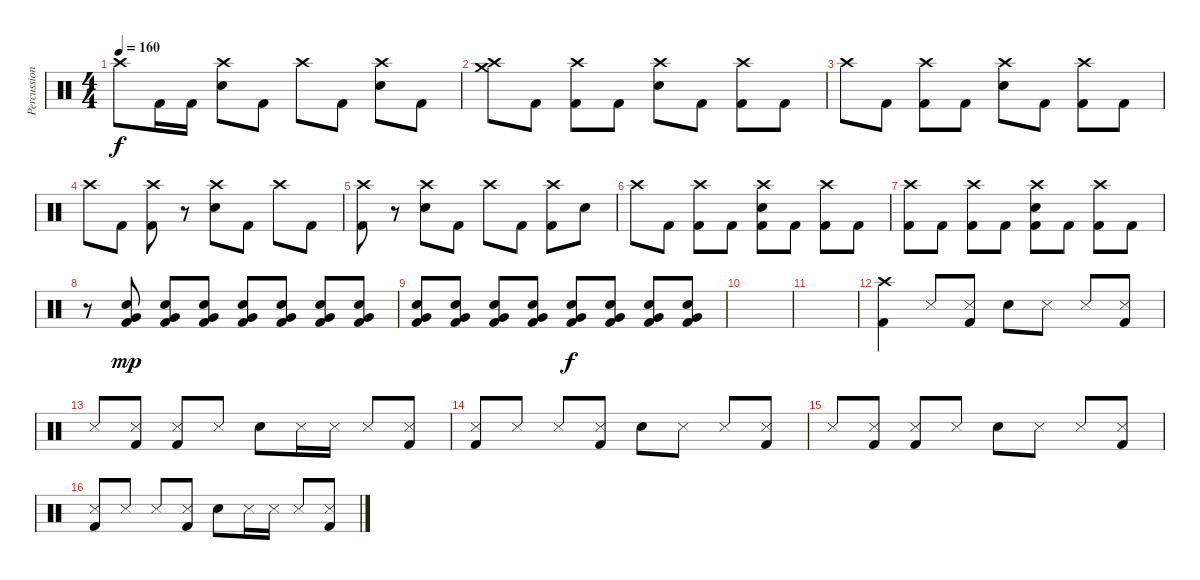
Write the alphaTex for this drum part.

\track ("Percussion" "Percussion") {instrument percussion}
\staff {score}
\articulation defaults
\ts (4 4)
\tempo 160
\clef neutral
\ks c "Crash high (hit)".8{dy f} "Kick (hit) 2".16 "Kick (hit) 2".16
("Crash high (hit)" "Electric Snare (hit)").8 "Kick (hit) 2".8 "Crash high (hit)".8 "Kick (hit) 2".8 ("Crash high (hit)" "Electric Snare (hit)").8 "Kick (hit) 2".8 |
("Crash medium (hit)" "Crash high (hit)").8 "Kick (hit) 2".8 ("Crash high (hit)" "Kick (hit) 2").8 "Kick (hit) 2".8 ("Crash high (hit)" "Electric Snare (hit)").8 "Kick (hit) 2".8 ("Crash high (hit)" "Kick (hit) 2").8 "Kick (hit) 2".8 |
"Crash high (hit)".8 "Kick (hit) 2".8 ("Crash high (hit)" "Kick (hit) 2").8 "Kick (hit) 2".8 ("Crash high (hit)" "Electric Snare (hit)").8 "Kick (hit) 2".8 ("Crash high (hit)" "Kick (hit) 2").8 "Kick (hit) 2".8 |
"Crash high (hit)".8 "Kick (hit) 2".8 ("Crash high (hit)" "Kick (hit) 2").8 r.8 ("Crash high (hit)" "Electric Snare (hit)").8 "Kick (hit) 2".8 "Crash high (hit)".8 "Kick (hit) 2".8 |
("Crash high (hit)" "Kick (hit) 2").8 r.8 ("Crash high (hit)" "Electric Snare (hit)").8 "Kick (hit) 2".8 "Crash high (hit)".8 "Kick (hit) 2".8 ("Crash high (hit)" "Kick (hit) 2").8 "Electric Snare (hit)".8 |
"Crash high (hit)".8 "Kick (hit) 2".8 ("Crash high (hit)" "Kick (hit) 2").8 "Kick (hit) 2".8 ("Crash high (hit)" "Electric Snare (hit)" "Kick (hit) 2").8 "Kick (hit) 2".8 ("Crash high (hit)" "Kick (hit) 2").8 "Kick (hit) 2".8 |
("Crash high (hit)" "Kick (hit) 2").8 "Kick (hit) 2".8 ("Crash high (hit)" "Kick (hit) 2").8 "Kick (hit) 2".8 ("Crash high (hit)" "Electric Snare (hit)" "Kick (hit) 2").8 "Kick (hit) 2".8 ("Crash high (hit)" "Kick (hit) 2").8 "Kick (hit) 2".8 |
r.8 ("Very Low Tom (hit)" "Electric Snare (hit)" "Kick (hit) 2").8{dy mp} ("Very Low Tom (hit)" "Electric Snare (hit)" "Kick (hit) 2").8 ("Very Low Tom (hit)" "Electric Snare (hit)" "Kick (hit) 2").8 ("Very Low Tom (hit)" "Electric Snare (hit)" "Kick (hit) 2").8 ("Very Low Tom (hit)" "Electric Snare (hit)" "Kick (hit) 2").8 ("Very Low Tom (hit)" "Electric Snare (hit)" "Kick (hit) 2").8 ("Very Low Tom (hit)" "Electric Snare (hit)" "Kick (hit) 2").8 |
("Very Low Tom (hit)" "Electric Snare (hit)" "Kick (hit) 2").8 ("Very Low Tom (hit)" "Electric Snare (hit)" "Kick (hit) 2").8 ("Very Low Tom (hit)" "Electric Snare (hit)" "Kick (hit) 2").8 ("Very Low Tom (hit)" "Electric Snare (hit)" "Kick (hit) 2").8 ("Very Low Tom (hit)" "Electric Snare (hit)" "Kick (hit) 2").8{dy f} ("Very Low Tom (hit)" "Electric Snare (hit)" "Kick (hit) 2").8 ("Very Low Tom (hit)" "Electric Snare (hit)" "Kick (hit) 2").8 ("Very Low Tom (hit)" "Electric Snare (hit)" "Kick (hit) 2").8 |
|
|
("Crash high (hit)" "Kick (hit) 2").4 "Snare (side stick) 3".8 ("Snare (side stick) 3" "Kick (hit) 2").8 "Electric Snare (hit)".8 "Snare (side stick) 3".8 "Snare (side stick) 3".8 ("Snare (side stick) 3" "Kick (hit) 2").8 |
"Snare (side stick) 3".8 ("Snare (side stick) 3" "Kick (hit) 2").8 ("Snare (side stick) 3" "Kick (hit) 2").8 "Snare (side stick) 3".8 "Electric Snare (hit)".8 "Snare (side stick) 3".16 "Snare (side stick) 3".16 "Snare (side stick) 3".8 ("Snare (side stick) 3" "Kick (hit) 2").8 |
("Snare (side stick) 3" "Kick (hit) 2").8 "Snare (side stick) 3".8 "Snare (side stick) 3".8 ("Snare (side stick) 3" "Kick (hit) 2").8 "Electric Snare (hit)".8 "Snare (side stick) 3".8 "Snare (side stick) 3".8 ("Snare (side stick) 3" "Kick (hit) 2").8 |
"Snare (side stick) 3".8 ("Snare (side stick) 3" "Kick (hit) 2").8 ("Snare (side stick) 3" "Kick (hit) 2").8 "Snare (side stick) 3".8 "Electric Snare (hit)".8 "Snare (side stick) 3".8 "Snare (side stick) 3".8 ("Snare (side stick) 3" "Kick (hit) 2").8 |
("Snare (side stick) 3" "Kick (hit) 2").8 "Snare (side stick) 3".8 "Snare (side stick) 3".8 ("Snare (side stick) 3" "Kick (hit) 2").8 "Electric Snare (hit)".8 "Snare (side stick) 3".16 "Snare (side stick) 3".16 "Snare (side stick) 3".8 ("Snare (side stick) 3" "Kick (hit) 2").8
